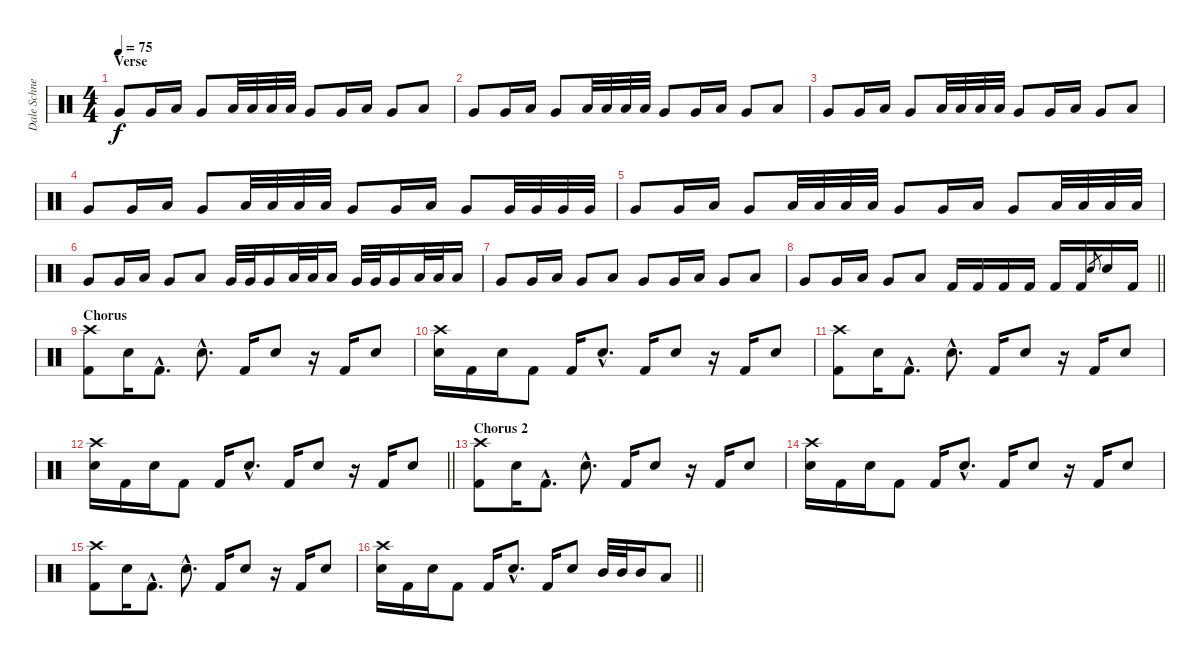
\track ("Dale Schnettler (Drums)" "Dale Schne") {instrument percussion}
\staff {score}
\articulation defaults
\ts (4 4)
\section ("" "Verse")
\tempo 75
\clef neutral
\ks c "Very Low Tom (hit)".8{dy f} "Very Low Tom (hit)".16 "Low Tom (hit)".16 "Very Low Tom (hit)".8 "Low Floor Tom (hit)".32 "Low Floor Tom (hit)".32 "Low Floor Tom (hit)".32 "Low Floor Tom (hit)".32 "Very Low Tom (hit)".8 "Very Low Tom (hit)".16 "Low Tom (hit)".16 "Very Low Tom (hit)".8 "Low Floor Tom (hit)".8
|
"Very Low Tom (hit)".8 "Very Low Tom (hit)".16 "Low Tom (hit)".16 "Very Low Tom (hit)".8 "Low Floor Tom (hit)".32 "Low Floor Tom (hit)".32 "Low Floor Tom (hit)".32 "Low Floor Tom (hit)".32 "Very Low Tom (hit)".8 "Very Low Tom (hit)".16 "Low Tom (hit)".16 "Very Low Tom (hit)".8 "Low Floor Tom (hit)".8 |
"Very Low Tom (hit)".8 "Very Low Tom (hit)".16 "Low Tom (hit)".16 "Very Low Tom (hit)".8 "Low Floor Tom (hit)".32 "Low Floor Tom (hit)".32 "Low Floor Tom (hit)".32 "Low Floor Tom (hit)".32 "Very Low Tom (hit)".8 "Very Low Tom (hit)".16 "Low Tom (hit)".16 "Very Low Tom (hit)".8 "Low Floor Tom (hit)".8 |
"Very Low Tom (hit)".8 "Very Low Tom (hit)".16 "Low Tom (hit)".16 "Very Low Tom (hit)".8 "Low Floor Tom (hit)".32 "Low Floor Tom (hit)".32 "Low Floor Tom (hit)".32 "Low Floor Tom (hit)".32 "Very Low Tom (hit)".8 "Very Low Tom (hit)".16 "Low Tom (hit)".16 "Very Low Tom (hit)".8 "Very Low Tom (hit)".32 "Very Low Tom (hit)".32 "Very Low Tom (hit)".32 "Very Low Tom (hit)".32 |
"Very Low Tom (hit)".8 "Very Low Tom (hit)".16 "Low Tom (hit)".16 "Very Low Tom (hit)".8 "Low Floor Tom (hit)".32 "Low Floor Tom (hit)".32 "Low Floor Tom (hit)".32 "Low Floor Tom (hit)".32 "Very Low Tom (hit)".8 "Very Low Tom (hit)".16 "Low Tom (hit)".16 "Very Low Tom (hit)".8 "Low Floor Tom (hit)".32 "Low Floor Tom (hit)".32 "Low Floor Tom (hit)".32 "Low Floor Tom (hit)".32 |
"Very Low Tom (hit)".8 "Very Low Tom (hit)".16 "Low Tom (hit)".16 "Very Low Tom (hit)".8 "Low Floor Tom (hit)".8 "Very Low Tom (hit)".32 "Very Low Tom (hit)".32 "Very Low Tom (hit)".16 "Low Floor Tom (hit)".32 "Low Floor Tom (hit)".32 "Low Floor Tom (hit)".16 "Very Low Tom (hit)".32 "Very Low Tom (hit)".32 "Very Low Tom (hit)".16 "Low Floor Tom (hit)".32 "Low Floor Tom (hit)".32 "Low Floor Tom (hit)".16 |
"Very Low Tom (hit)".8 "Very Low Tom (hit)".16 "Low Tom (hit)".16 "Very Low Tom (hit)".8 "Low Floor Tom (hit)".8 "Very Low Tom (hit)".8 "Very Low Tom (hit)".16 "Low Tom (hit)".16 "Very Low Tom (hit)".8 "Low Floor Tom (hit)".8 |
\barLineRight lightlight "Very Low Tom (hit)".8 "Very Low Tom (hit)".16 "Low Tom (hit)".16 "Very Low Tom (hit)".8 "Low Floor Tom (hit)".8 "Kick (hit) 2".16 "Kick (hit) 2".16 "Kick (hit) 2".16 "Kick (hit) 2".16 "Kick (hit) 2".16 "Kick (hit) 2".16 "Electric Snare (hit)".8{gr} "Electric Snare (hit)".16 "Kick (hit) 2".16
|
\section ("" "Chorus")
("Crash high (hit)" "Kick (hit) 2").8 "Electric Snare (hit)".16 "Kick (hit) 2"{hac}.8{d} "Electric Snare (hit)"{hac}.8{d} "Kick (hit) 2".16 "Electric Snare (hit)".8 r.16 "Kick (hit) 2".16 "Electric Snare (hit)".8 |
("Crash high (hit)" "Electric Snare (hit)").16 "Kick (hit) 2".16 "Electric Snare (hit)".16 "Kick (hit) 2".8 "Kick (hit) 2".16 "Electric Snare (hit)"{hac}.8{d} "Kick (hit) 2".16 "Electric Snare (hit)".8 r.16 "Kick (hit) 2".16 "Electric Snare (hit)".8 |
("Crash high (hit)" "Kick (hit) 2").8 "Electric Snare (hit)".16 "Kick (hit) 2"{hac}.8{d} "Electric Snare (hit)"{hac}.8{d} "Kick (hit) 2".16 "Electric Snare (hit)".8 r.16 "Kick (hit) 2".16 "Electric Snare (hit)".8 |
\barLineRight lightlight
("Crash high (hit)" "Electric Snare (hit)").16 "Kick (hit) 2".16 "Electric Snare (hit)".16 "Kick (hit) 2".8 "Kick (hit) 2".16 "Electric Snare (hit)"{hac}.8{d} "Kick (hit) 2".16 "Electric Snare (hit)".8 r.16 "Kick (hit) 2".16 "Electric Snare (hit)".8 |
\section ("" "Chorus 2")
("Crash high (hit)" "Kick (hit) 2").8 "Electric Snare (hit)".16 "Kick (hit) 2"{hac}.8{d} "Electric Snare (hit)"{hac}.8{d} "Kick (hit) 2".16 "Electric Snare (hit)".8 r.16 "Kick (hit) 2".16 "Electric Snare (hit)".8 |
("Crash high (hit)" "Electric Snare (hit)").16 "Kick (hit) 2".16 "Electric Snare (hit)".16 "Kick (hit) 2".8 "Kick (hit) 2".16 "Electric Snare (hit)"{hac}.8{d} "Kick (hit) 2".16 "Electric Snare (hit)".8 r.16 "Kick (hit) 2".16 "Electric Snare (hit)".8 |
("Crash high (hit)" "Kick (hit) 2").8 "Electric Snare (hit)".16 "Kick (hit) 2"{hac}.8{d} "Electric Snare (hit)"{hac}.8{d} "Kick (hit) 2".16 "Electric Snare (hit)".8 r.16 "Kick (hit) 2".16 "Electric Snare (hit)".8 |
\barLineRight lightlight
("Crash high (hit)" "Electric Snare (hit)").16 "Kick (hit) 2".16 "Electric Snare (hit)".16 "Kick (hit) 2".8 "Kick (hit) 2".16 "Electric Snare (hit)"{hac}.8{d} "Kick (hit) 2".16 "Electric Snare (hit)".8 "Mid Tom (hit)".32 "Mid Tom (hit)".32 "Mid Tom (hit)".16 "Low Tom (hit)".8
